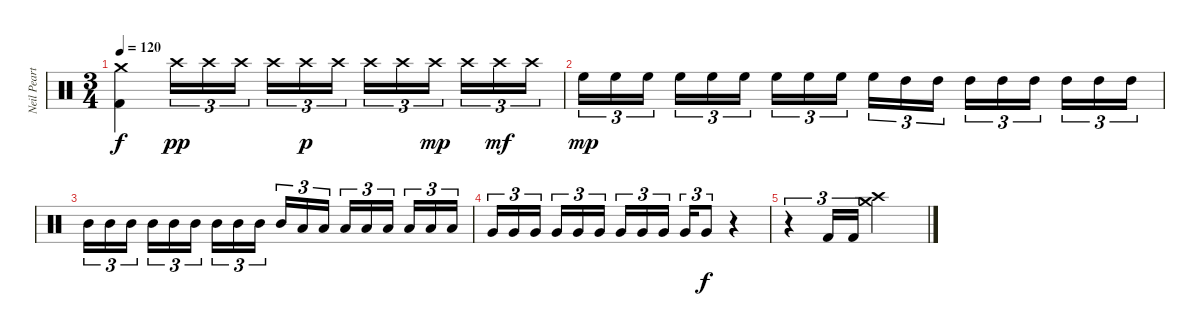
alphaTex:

\track ("Neil Peart" "Neil Peart") {instrument percussion}
\staff {score}
\articulation defaults
\ts (3 4)
\tempo 120
\clef neutral
\ks c
("Crash medium (hit)" "Kick (hit) 2").4{dy f} "Crash high (hit)".16{tu (3 2) dy pp} "Crash high (hit)".16{tu (3 2)} "Crash high (hit)".16{tu (3 2) beam splitsecondary} "Crash high (hit)".16{tu (3 2)} "Crash high (hit)".16{tu (3 2) dy p} "Crash high (hit)".16{tu (3 2)} "Crash high (hit)".16{tu (3 2)} "Crash high (hit)".16{tu (3 2)} "Crash high (hit)".16{tu (3 2) dy mp beam splitsecondary} "Crash high (hit)".16{tu (3 2)} "Crash high (hit)".16{tu (3 2) dy mf} "Crash high (hit)".16{tu (3 2)} |
"High Floor Tom (hit)".16{tu (3 2) dy mp} "High Floor Tom (hit)".16{tu (3 2)} "High Floor Tom (hit)".16{tu (3 2) beam splitsecondary} "High Floor Tom (hit)".16{tu (3 2)} "High Floor Tom (hit)".16{tu (3 2)} "High Floor Tom (hit)".16{tu (3 2)} "High Floor Tom (hit)".16{tu (3 2)} "High Floor Tom (hit)".16{tu (3 2)} "High Floor Tom (hit)".16{tu (3 2) beam splitsecondary} "High Floor Tom (hit)".16{tu (3 2)} "High Tom (hit)".16{tu (3 2)} "High Tom (hit)".16{tu (3 2)} "High Tom (hit)".16{tu (3 2)} "High Tom (hit)".16{tu (3 2)} "High Tom (hit)".16{tu (3 2) beam splitsecondary} "High Tom (hit)".16{tu (3 2)} "High Tom (hit)".16{tu (3 2)} "High Tom (hit)".16{tu (3 2)} |
"Mid Tom (hit)".16{tu (3 2)} "Mid Tom (hit)".16{tu (3 2)} "Mid Tom (hit)".16{tu (3 2) beam splitsecondary} "Mid Tom (hit)".16{tu (3 2)} "Mid Tom (hit)".16{tu (3 2)} "Mid Tom (hit)".16{tu (3 2)} "Mid Tom (hit)".16{tu (3 2)} "Mid Tom (hit)".16{tu (3 2)} "Mid Tom (hit)".16{tu (3 2) beam splitsecondary} "Mid Tom (hit)".16{tu (3 2)} "Low Tom (hit)".16{tu (3 2)} "Low Tom (hit)".16{tu (3 2)} "Low Tom (hit)".16{tu (3 2)} "Low Tom (hit)".16{tu (3 2)} "Low Tom (hit)".16{tu (3 2) beam splitsecondary} "Low Tom (hit)".16{tu (3 2)} "Low Tom (hit)".16{tu (3 2)} "Low Tom (hit)".16{tu (3 2)} |
"Very Low Tom (hit)".16{tu (3 2)} "Very Low Tom (hit)".16{tu (3 2)} "Very Low Tom (hit)".16{tu (3 2) beam splitsecondary} "Very Low Tom (hit)".16{tu (3 2)} "Very Low Tom (hit)".16{tu (3 2)} "Very Low Tom (hit)".16{tu (3 2)} "Very Low Tom (hit)".16{tu (3 2)} "Very Low Tom (hit)".16{tu (3 2)} "Very Low Tom (hit)".16{tu (3 2) beam splitsecondary} "Very Low Tom (hit)".16{tu (3 2)} "Very Low Tom (hit)".8{tu (3 2) dy f} r.4 |
r.4{tu (3 2)} "Kick (hit) 2".16{tu (3 2)} "Kick (hit) 2".16{tu (3 2)} ("Crash high (hit)" "Crash medium (hit)").2
